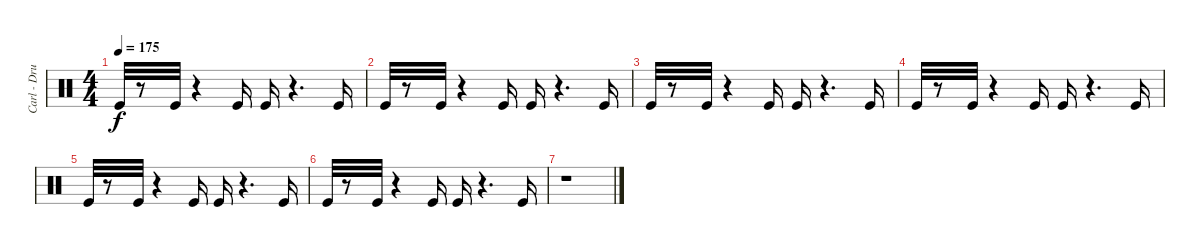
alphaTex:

\track ("Carl - Drums I" "Carl - Dru") {instrument percussion}
\staff {score}
\articulation defaults
\ts (4 4)
\tempo 175
\clef neutral
\ks c "Kick (hit)".32{dy f}
r.8 "Kick (hit)".32 r.4 "Kick (hit)".16 "Kick (hit)".16 r.4{d} "Kick (hit)".16 |
"Kick (hit)".32 r.8 "Kick (hit)".32 r.4 "Kick (hit)".16 "Kick (hit)".16 r.4{d} "Kick (hit)".16 |
"Kick (hit)".32 r.8 "Kick (hit)".32 r.4 "Kick (hit)".16 "Kick (hit)".16 r.4{d} "Kick (hit)".16 |
"Kick (hit)".32 r.8 "Kick (hit)".32 r.4 "Kick (hit)".16 "Kick (hit)".16 r.4{d} "Kick (hit)".16 |
"Kick (hit)".32 r.8 "Kick (hit)".32 r.4 "Kick (hit)".16 "Kick (hit)".16 r.4{d} "Kick (hit)".16 |
"Kick (hit)".32 r.8 "Kick (hit)".32 r.4 "Kick (hit)".16 "Kick (hit)".16 r.4{d} "Kick (hit)".16 |
r.1
